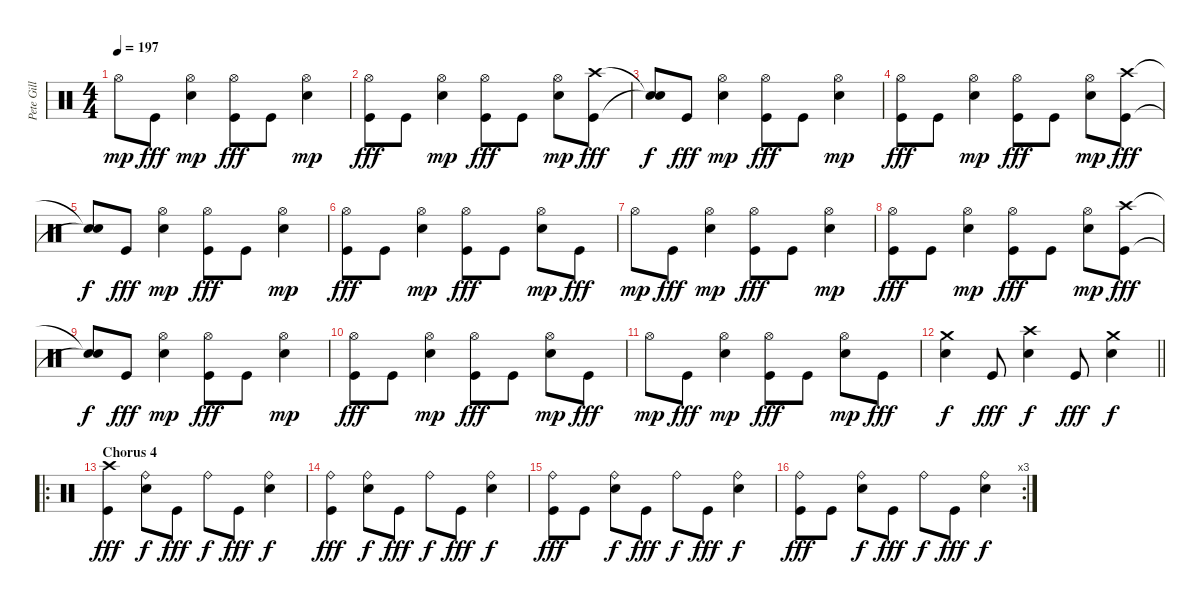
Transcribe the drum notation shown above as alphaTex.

\track ("Pete Gill" "Pete Gill") {instrument percussion}
\staff {score}
\articulation defaults
\ts (4 4)
\tempo 197
\clef neutral
\ks c "Hi-Hat (open)".8{dy mp} "Kick (hit)".8{dy fff}
("Hi-Hat (open)" "Electric Snare (hit)").4{dy mp} ("Hi-Hat (open)" "Kick (hit)").8{dy fff} "Kick (hit)".8 ("Hi-Hat (open)" "Electric Snare (hit)").4{dy mp} |
("Hi-Hat (open)" "Kick (hit)").8{dy fff} "Kick (hit)".8 ("Hi-Hat (open)" "Electric Snare (hit)").4{dy mp} ("Hi-Hat (open)" "Kick (hit)").8{dy fff} "Kick (hit)".8 ("Hi-Hat (open)" "Electric Snare (hit)").8{dy mp} ("Crash high (hit)" "Kick (hit)").8{dy fff} |
("Snare (hit)"{t} "Snare (hit)"{t}).8{dy f} "Kick (hit)".8{dy fff} ("Hi-Hat (open)" "Electric Snare (hit)").4{dy mp} ("Hi-Hat (open)" "Kick (hit)").8{dy fff} "Kick (hit)".8 ("Hi-Hat (open)" "Electric Snare (hit)").4{dy mp} |
("Hi-Hat (open)" "Kick (hit)").8{dy fff} "Kick (hit)".8 ("Hi-Hat (open)" "Electric Snare (hit)").4{dy mp} ("Hi-Hat (open)" "Kick (hit)").8{dy fff} "Kick (hit)".8 ("Hi-Hat (open)" "Electric Snare (hit)").8{dy mp} ("Crash high (hit)" "Kick (hit)").8{dy fff} |
("Snare (hit)"{t} "Snare (hit)"{t}).8{dy f} "Kick (hit)".8{dy fff} ("Hi-Hat (open)" "Electric Snare (hit)").4{dy mp} ("Hi-Hat (open)" "Kick (hit)").8{dy fff} "Kick (hit)".8 ("Hi-Hat (open)" "Electric Snare (hit)").4{dy mp} |
("Hi-Hat (open)" "Kick (hit)").8{dy fff} "Kick (hit)".8 ("Hi-Hat (open)" "Electric Snare (hit)").4{dy mp} ("Hi-Hat (open)" "Kick (hit)").8{dy fff} "Kick (hit)".8 ("Hi-Hat (open)" "Electric Snare (hit)").8{dy mp} "Kick (hit)".8{dy fff} |
"Hi-Hat (open)".8{dy mp} "Kick (hit)".8{dy fff} ("Hi-Hat (open)" "Electric Snare (hit)").4{dy mp} ("Hi-Hat (open)" "Kick (hit)").8{dy fff} "Kick (hit)".8 ("Hi-Hat (open)" "Electric Snare (hit)").4{dy mp} |
("Hi-Hat (open)" "Kick (hit)").8{dy fff} "Kick (hit)".8 ("Hi-Hat (open)" "Electric Snare (hit)").4{dy mp} ("Hi-Hat (open)" "Kick (hit)").8{dy fff} "Kick (hit)".8 ("Hi-Hat (open)" "Electric Snare (hit)").8{dy mp} ("Crash high (hit)" "Kick (hit)").8{dy fff} |
("Snare (hit)"{t} "Snare (hit)"{t}).8{dy f} "Kick (hit)".8{dy fff} ("Hi-Hat (open)" "Electric Snare (hit)").4{dy mp} ("Hi-Hat (open)" "Kick (hit)").8{dy fff} "Kick (hit)".8 ("Hi-Hat (open)" "Electric Snare (hit)").4{dy mp} |
("Hi-Hat (open)" "Kick (hit)").8{dy fff} "Kick (hit)".8 ("Hi-Hat (open)" "Electric Snare (hit)").4{dy mp} ("Hi-Hat (open)" "Kick (hit)").8{dy fff} "Kick (hit)".8 ("Hi-Hat (open)" "Electric Snare (hit)").8{dy mp} "Kick (hit)".8{dy fff} |
"Hi-Hat (open)".8{dy mp} "Kick (hit)".8{dy fff} ("Hi-Hat (open)" "Electric Snare (hit)").4{dy mp} ("Hi-Hat (open)" "Kick (hit)").8{dy fff} "Kick (hit)".8 ("Hi-Hat (open)" "Electric Snare (hit)").8{dy mp} "Kick (hit)".8{dy fff} |
\barLineRight lightlight
("Crash medium (hit)" "Electric Snare (hit)").4{dy f} "Kick (hit)".8{dy fff} ("Crash high (hit)" "Electric Snare (hit)").4{dy f} "Kick (hit)".8{dy fff} ("Crash medium (hit)" "Electric Snare (hit)").4{dy f} |
\ro
\section ("" "Chorus 4")
("Crash high (hit)" "Kick (hit)").4{dy fff} ("Ride (bell)" "Electric Snare (hit)").8{dy f} "Kick (hit)".8{dy fff} "Ride (bell)".8{dy f} "Kick (hit)".8{dy fff} ("Ride (bell)" "Electric Snare (hit)").4{dy f} |
("Ride (bell)" "Kick (hit)").4{dy fff} ("Ride (bell)" "Electric Snare (hit)").8{dy f} "Kick (hit)".8{dy fff} "Ride (bell)".8{dy f} "Kick (hit)".8{dy fff} ("Ride (bell)" "Electric Snare (hit)").4{dy f} |
("Ride (bell)" "Kick (hit)").8{dy fff} "Kick (hit)".8 ("Ride (bell)" "Electric Snare (hit)").8{dy f} "Kick (hit)".8{dy fff} "Ride (bell)".8{dy f} "Kick (hit)".8{dy fff} ("Ride (bell)" "Electric Snare (hit)").4{dy f} |
\rc 3
("Ride (bell)" "Kick (hit)").8{dy fff} "Kick (hit)".8 ("Ride (bell)" "Electric Snare (hit)").8{dy f} "Kick (hit)".8{dy fff} "Ride (bell)".8{dy f} "Kick (hit)".8{dy fff} ("Ride (bell)" "Electric Snare (hit)").4{dy f}
